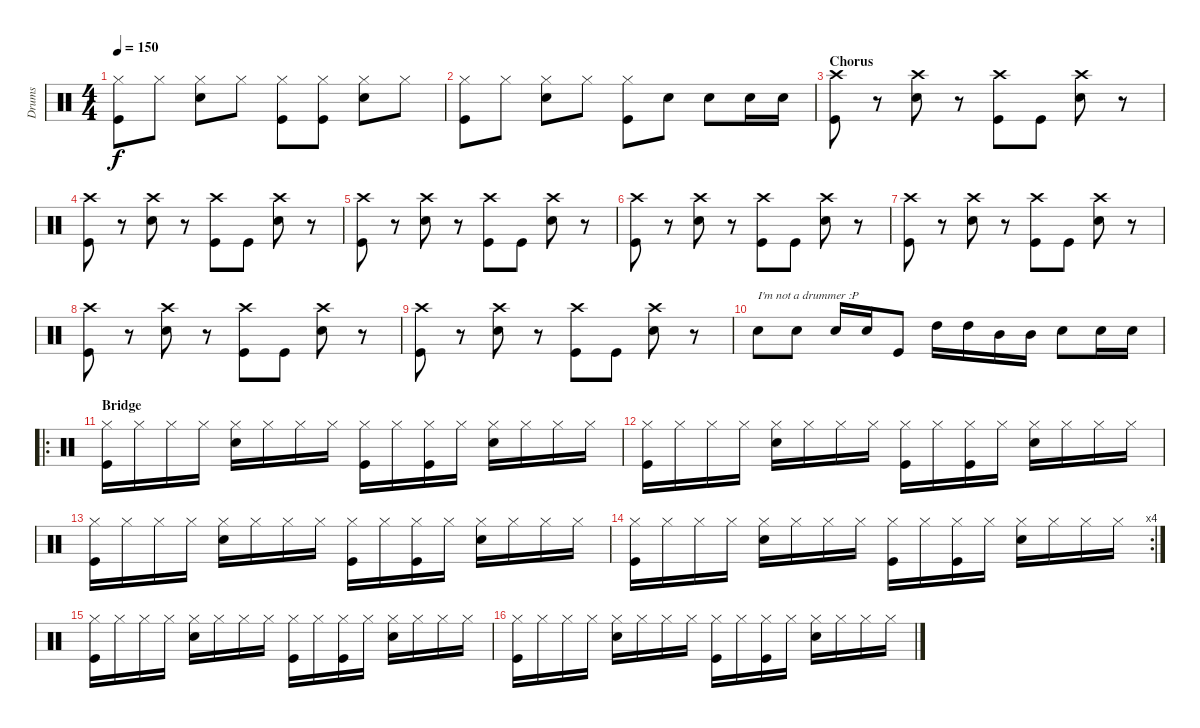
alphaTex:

\track ("Drums" "Drums") {instrument percussion}
\staff {score}
\articulation defaults
\ts (4 4)
\tempo 150
\clef neutral
\ks c
("Hi-Hat (closed)" "Kick (hit)").8{dy f} "Hi-Hat (closed)".8 ("Hi-Hat (closed)" "Snare (hit) 2").8 "Hi-Hat (closed)".8 ("Hi-Hat (closed)" "Kick (hit)").8 ("Hi-Hat (closed)" "Kick (hit)").8 ("Hi-Hat (closed)" "Snare (hit) 2").8 "Hi-Hat (closed)".8 |
("Hi-Hat (closed)" "Kick (hit)").8 "Hi-Hat (closed)".8 ("Hi-Hat (closed)" "Snare (hit) 2").8 "Hi-Hat (closed)".8 ("Hi-Hat (closed)" "Kick (hit)").8 "Snare (hit) 2".8 "Snare (hit) 2".8 "Snare (hit) 2".16 "Snare (hit) 2".16 |
\section ("" "Chorus")
("Crash high (hit)" "Kick (hit)").8 r.8 ("Crash high (hit)" "Snare (hit) 2").8 r.8 ("Crash high (hit)" "Kick (hit)").8 "Kick (hit)".8 ("Crash high (hit)" "Snare (hit) 2").8 r.8 |
("Crash high (hit)" "Kick (hit)").8 r.8 ("Crash high (hit)" "Snare (hit) 2").8 r.8 ("Crash high (hit)" "Kick (hit)").8 "Kick (hit)".8 ("Crash high (hit)" "Snare (hit) 2").8 r.8 |
("Crash high (hit)" "Kick (hit)").8 r.8 ("Crash high (hit)" "Snare (hit) 2").8 r.8 ("Crash high (hit)" "Kick (hit)").8 "Kick (hit)".8 ("Crash high (hit)" "Snare (hit) 2").8 r.8 |
("Crash high (hit)" "Kick (hit)").8 r.8 ("Crash high (hit)" "Snare (hit) 2").8 r.8 ("Crash high (hit)" "Kick (hit)").8 "Kick (hit)".8 ("Crash high (hit)" "Snare (hit) 2").8 r.8 |
("Crash high (hit)" "Kick (hit)").8 r.8 ("Crash high (hit)" "Snare (hit) 2").8 r.8 ("Crash high (hit)" "Kick (hit)").8 "Kick (hit)".8 ("Crash high (hit)" "Snare (hit) 2").8 r.8 |
("Crash high (hit)" "Kick (hit)").8 r.8 ("Crash high (hit)" "Snare (hit) 2").8 r.8 ("Crash high (hit)" "Kick (hit)").8 "Kick (hit)".8 ("Crash high (hit)" "Snare (hit) 2").8 r.8 |
("Crash high (hit)" "Kick (hit)").8 r.8 ("Crash high (hit)" "Snare (hit) 2").8 r.8 ("Crash high (hit)" "Kick (hit)").8 "Kick (hit)".8 ("Crash high (hit)" "Snare (hit) 2").8 r.8 |
"Snare (hit) 2".8{txt "I'm not a drummer :P"} "Snare (hit) 2".8 "Snare (hit) 2".16 "Snare (hit) 2".16 "Kick (hit)".8 "High Tom (hit)".16 "High Tom (hit)".16 "Mid Tom (hit)".16 "Mid Tom (hit)".16 "Snare (hit) 2".8 "Snare (hit) 2".16 "Snare (hit) 2".16 |
\ro
\section ("" "Bridge")
("Hi-Hat (closed)" "Kick (hit)").16 "Hi-Hat (closed)".16 "Hi-Hat (closed)".16 "Hi-Hat (closed)".16 ("Hi-Hat (closed)" "Snare (hit) 2").16 "Hi-Hat (closed)".16 "Hi-Hat (closed)".16 "Hi-Hat (closed)".16 ("Hi-Hat (closed)" "Kick (hit)").16 "Hi-Hat (closed)".16 ("Hi-Hat (closed)" "Kick (hit)").16 "Hi-Hat (closed)".16 ("Hi-Hat (closed)" "Snare (hit) 2").16 "Hi-Hat (closed)".16 "Hi-Hat (closed)".16 "Hi-Hat (closed)".16 |
("Hi-Hat (closed)" "Kick (hit)").16 "Hi-Hat (closed)".16 "Hi-Hat (closed)".16 "Hi-Hat (closed)".16 ("Hi-Hat (closed)" "Snare (hit) 2").16 "Hi-Hat (closed)".16 "Hi-Hat (closed)".16 "Hi-Hat (closed)".16 ("Hi-Hat (closed)" "Kick (hit)").16 "Hi-Hat (closed)".16 ("Hi-Hat (closed)" "Kick (hit)").16 "Hi-Hat (closed)".16 ("Hi-Hat (closed)" "Snare (hit) 2").16 "Hi-Hat (closed)".16 "Hi-Hat (closed)".16 "Hi-Hat (closed)".16 |
("Hi-Hat (closed)" "Kick (hit)").16 "Hi-Hat (closed)".16 "Hi-Hat (closed)".16 "Hi-Hat (closed)".16 ("Hi-Hat (closed)" "Snare (hit) 2").16 "Hi-Hat (closed)".16 "Hi-Hat (closed)".16 "Hi-Hat (closed)".16 ("Hi-Hat (closed)" "Kick (hit)").16 "Hi-Hat (closed)".16 ("Hi-Hat (closed)" "Kick (hit)").16 "Hi-Hat (closed)".16 ("Hi-Hat (closed)" "Snare (hit) 2").16 "Hi-Hat (closed)".16 "Hi-Hat (closed)".16 "Hi-Hat (closed)".16 |
\rc 4
("Hi-Hat (closed)" "Kick (hit)").16 "Hi-Hat (closed)".16 "Hi-Hat (closed)".16 "Hi-Hat (closed)".16 ("Hi-Hat (closed)" "Snare (hit) 2").16 "Hi-Hat (closed)".16 "Hi-Hat (closed)".16 "Hi-Hat (closed)".16 ("Hi-Hat (closed)" "Kick (hit)").16 "Hi-Hat (closed)".16 ("Hi-Hat (closed)" "Kick (hit)").16 "Hi-Hat (closed)".16 ("Hi-Hat (closed)" "Snare (hit) 2").16 "Hi-Hat (closed)".16 "Hi-Hat (closed)".16 "Hi-Hat (closed)".16 |
("Hi-Hat (closed)" "Kick (hit)").16 "Hi-Hat (closed)".16 "Hi-Hat (closed)".16 "Hi-Hat (closed)".16 ("Hi-Hat (closed)" "Snare (hit) 2").16 "Hi-Hat (closed)".16 "Hi-Hat (closed)".16 "Hi-Hat (closed)".16 ("Hi-Hat (closed)" "Kick (hit)").16 "Hi-Hat (closed)".16 ("Hi-Hat (closed)" "Kick (hit)").16 "Hi-Hat (closed)".16 ("Hi-Hat (closed)" "Snare (hit) 2").16 "Hi-Hat (closed)".16 "Hi-Hat (closed)".16 "Hi-Hat (closed)".16 |
("Hi-Hat (closed)" "Kick (hit)").16 "Hi-Hat (closed)".16 "Hi-Hat (closed)".16 "Hi-Hat (closed)".16 ("Hi-Hat (closed)" "Snare (hit) 2").16 "Hi-Hat (closed)".16 "Hi-Hat (closed)".16 "Hi-Hat (closed)".16 ("Hi-Hat (closed)" "Kick (hit)").16 "Hi-Hat (closed)".16 ("Hi-Hat (closed)" "Kick (hit)").16 "Hi-Hat (closed)".16 ("Hi-Hat (closed)" "Snare (hit) 2").16 "Hi-Hat (closed)".16 "Hi-Hat (closed)".16 "Hi-Hat (closed)".16
